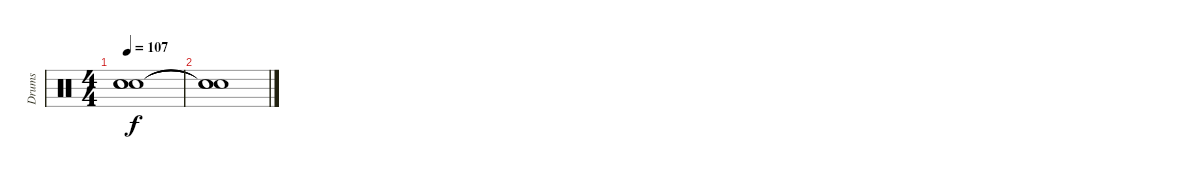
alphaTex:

\track ("Drums" "Drums") {instrument percussion}
\staff {score}
\articulation defaults
\ts (4 4)
\tempo 107
\clef neutral
\ks c
("Snare (hit)"{t} "Snare (hit)"{t} "Snare (hit)"{t}).1{dy f} |
("Snare (hit)"{t} "Snare (hit)"{t} "Snare (hit)"{t}).1
